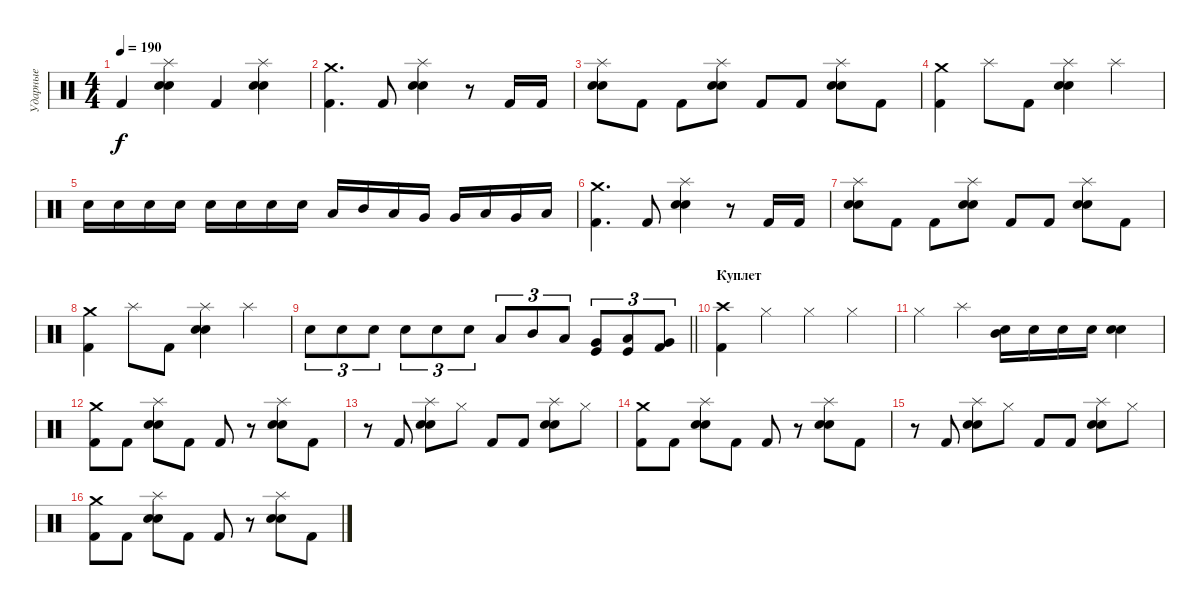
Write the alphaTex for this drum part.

\track ("Ударные" "Ударные") {instrument percussion}
\staff {score}
\articulation defaults
\ts (4 4)
\tempo 190
\clef neutral
\ks c "Kick (hit) 2".4{dy f}
("Splash (hit)" "Electric Snare (hit)" "Snare (hit) 2").4 "Kick (hit) 2".4 ("Splash (hit)" "Electric Snare (hit)" "Snare (hit) 2").4 |
("Crash medium (hit)" "Kick (hit) 2").4{d} "Kick (hit) 2".8 ("Splash (hit)" "Electric Snare (hit)" "Snare (hit) 2").4 r.8 "Kick (hit) 2".16 "Kick (hit) 2".16 |
("Splash (hit)" "Electric Snare (hit)" "Snare (hit) 2").8 "Kick (hit) 2".8 "Kick (hit) 2".8 ("Splash (hit)" "Electric Snare (hit)" "Snare (hit) 2").8 "Kick (hit) 2".8 "Kick (hit) 2".8 ("Splash (hit)" "Electric Snare (hit)" "Snare (hit) 2").8 "Kick (hit) 2".8 |
("Crash medium (hit)" "Kick (hit) 2").4 "Splash (hit)".8 "Kick (hit) 2".8 ("Splash (hit)" "Electric Snare (hit)" "Snare (hit) 2").4 "Splash (hit)".4 |
"Electric Snare (hit)".16 "Electric Snare (hit)".16 "Electric Snare (hit)".16 "Electric Snare (hit)".16 "Electric Snare (hit)".16 "Electric Snare (hit)".16 "Electric Snare (hit)".16 "Electric Snare (hit)".16 "Low Tom (hit)".16 "Mid Tom (hit)".16 "Low Tom (hit)".16 "Very Low Tom (hit)".16 "Very Low Tom (hit)".16 "Low Tom (hit)".16 "Very Low Tom (hit)".16 "Low Floor Tom (hit)".16 |
("Crash medium (hit)" "Kick (hit) 2").4{d} "Kick (hit) 2".8 ("Splash (hit)" "Electric Snare (hit)" "Snare (hit) 2").4 r.8 "Kick (hit) 2".16 "Kick (hit) 2".16 |
("Splash (hit)" "Electric Snare (hit)" "Snare (hit) 2").8 "Kick (hit) 2".8 "Kick (hit) 2".8 ("Splash (hit)" "Electric Snare (hit)" "Snare (hit) 2").8 "Kick (hit) 2".8 "Kick (hit) 2".8 ("Splash (hit)" "Electric Snare (hit)" "Snare (hit) 2").8 "Kick (hit) 2".8 |
("Crash medium (hit)" "Kick (hit) 2").4 "Splash (hit)".8 "Kick (hit) 2".8 ("Splash (hit)" "Electric Snare (hit)" "Snare (hit) 2").4 "Splash (hit)".4 |
\barLineRight lightlight "Electric Snare (hit)".8{tu (3 2)} "Electric Snare (hit)".8{tu (3 2)} "Electric Snare (hit)".8{tu (3 2)} "Electric Snare (hit)".8{tu (3 2)} "Electric Snare (hit)".8{tu (3 2)} "Electric Snare (hit)".8{tu (3 2)} "Low Tom (hit)".8{tu (3 2)} "Mid Tom (hit)".8{tu (3 2)} "Low Tom (hit)".8{tu (3 2)}
("Very Low Tom (hit)" "Kick (hit)").8{tu (3 2)} ("Low Tom (hit)" "Kick (hit)").8{tu (3 2)} ("Very Low Tom (hit)" "Kick (hit) 2").8{tu (3 2)} |
\section ("" "Куплет")
("Crash high (hit)" "Kick (hit) 2").4 "Hi-Hat (closed)".4 "Hi-Hat (closed)".4 "Hi-Hat (closed)".4 |
"Hi-Hat (closed)".4 "Splash (hit)".4 ("Electric Snare (hit)" "Mid Tom (hit)").16 "Electric Snare (hit)".16 "Electric Snare (hit)".16 "Electric Snare (hit)".16 ("Electric Snare (hit)" "Snare (hit) 2").4 |
("Crash medium (hit)" "Kick (hit) 2").8 "Kick (hit) 2".8 ("Splash (hit)" "Electric Snare (hit)" "Snare (hit) 2").8 "Kick (hit) 2".8 "Kick (hit) 2".8 r.8 ("Splash (hit)" "Electric Snare (hit)" "Snare (hit) 2").8 "Kick (hit) 2".8 |
r.8 "Kick (hit) 2".8 ("Splash (hit)" "Electric Snare (hit)" "Snare (hit) 2").8 "Hi-Hat (closed)".8 "Kick (hit) 2".8 "Kick (hit) 2".8 ("Splash (hit)" "Electric Snare (hit)" "Snare (hit) 2").8 "Hi-Hat (closed)".8 |
("Crash medium (hit)" "Kick (hit) 2").8 "Kick (hit) 2".8 ("Splash (hit)" "Electric Snare (hit)" "Snare (hit) 2").8 "Kick (hit) 2".8 "Kick (hit) 2".8 r.8 ("Splash (hit)" "Electric Snare (hit)" "Snare (hit) 2").8 "Kick (hit) 2".8 |
r.8 "Kick (hit) 2".8 ("Splash (hit)" "Electric Snare (hit)" "Snare (hit) 2").8 "Hi-Hat (closed)".8 "Kick (hit) 2".8 "Kick (hit) 2".8 ("Splash (hit)" "Electric Snare (hit)" "Snare (hit) 2").8 "Hi-Hat (closed)".8 |
("Crash medium (hit)" "Kick (hit) 2").8 "Kick (hit) 2".8 ("Splash (hit)" "Electric Snare (hit)" "Snare (hit) 2").8 "Kick (hit) 2".8 "Kick (hit) 2".8 r.8 ("Splash (hit)" "Electric Snare (hit)" "Snare (hit) 2").8 "Kick (hit) 2".8
